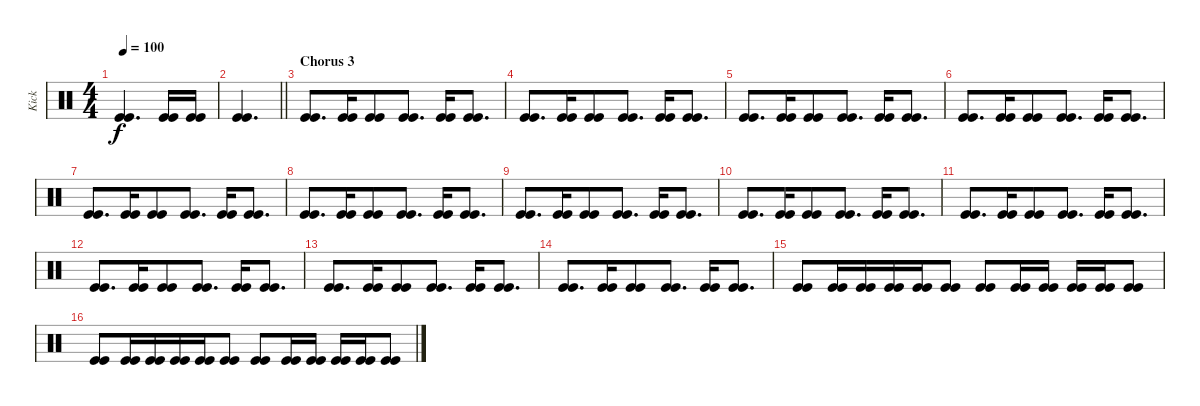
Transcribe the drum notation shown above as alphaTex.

\track ("Kick" "Kick") {instrument percussion}
\staff {score}
\articulation defaults
\ts (4 4)
\tempo 100
\clef neutral
\ks c
("Kick (hit)" "Kick (hit)").4{d dy f beam merge} ("Kick (hit)" "Kick (hit)").16 ("Kick (hit)" "Kick (hit)").16 |
\barLineRight lightlight
("Kick (hit)" "Kick (hit)").4{d} |
\section ("" "Chorus 3")
("Kick (hit)" "Kick (hit)").8{d} ("Kick (hit)" "Kick (hit)").16{beam merge} ("Kick (hit)" "Kick (hit)").8{beam merge} ("Kick (hit)" "Kick (hit)").8{d} ("Kick (hit)" "Kick (hit)").16{beam merge} ("Kick (hit)" "Kick (hit)").8{d} |
("Kick (hit)" "Kick (hit)").8{d} ("Kick (hit)" "Kick (hit)").16{beam merge} ("Kick (hit)" "Kick (hit)").8{beam merge} ("Kick (hit)" "Kick (hit)").8{d} ("Kick (hit)" "Kick (hit)").16{beam merge} ("Kick (hit)" "Kick (hit)").8{d} |
("Kick (hit)" "Kick (hit)").8{d} ("Kick (hit)" "Kick (hit)").16{beam merge} ("Kick (hit)" "Kick (hit)").8{beam merge} ("Kick (hit)" "Kick (hit)").8{d} ("Kick (hit)" "Kick (hit)").16{beam merge} ("Kick (hit)" "Kick (hit)").8{d} |
("Kick (hit)" "Kick (hit)").8{d} ("Kick (hit)" "Kick (hit)").16{beam merge} ("Kick (hit)" "Kick (hit)").8{beam merge} ("Kick (hit)" "Kick (hit)").8{d} ("Kick (hit)" "Kick (hit)").16{beam merge} ("Kick (hit)" "Kick (hit)").8{d} |
("Kick (hit)" "Kick (hit)").8{d} ("Kick (hit)" "Kick (hit)").16{beam merge} ("Kick (hit)" "Kick (hit)").8{beam merge} ("Kick (hit)" "Kick (hit)").8{d} ("Kick (hit)" "Kick (hit)").16{beam merge} ("Kick (hit)" "Kick (hit)").8{d} |
("Kick (hit)" "Kick (hit)").8{d} ("Kick (hit)" "Kick (hit)").16{beam merge} ("Kick (hit)" "Kick (hit)").8{beam merge} ("Kick (hit)" "Kick (hit)").8{d} ("Kick (hit)" "Kick (hit)").16{beam merge} ("Kick (hit)" "Kick (hit)").8{d} |
("Kick (hit)" "Kick (hit)").8{d} ("Kick (hit)" "Kick (hit)").16{beam merge} ("Kick (hit)" "Kick (hit)").8{beam merge} ("Kick (hit)" "Kick (hit)").8{d} ("Kick (hit)" "Kick (hit)").16{beam merge} ("Kick (hit)" "Kick (hit)").8{d} |
("Kick (hit)" "Kick (hit)").8{d} ("Kick (hit)" "Kick (hit)").16{beam merge} ("Kick (hit)" "Kick (hit)").8{beam merge} ("Kick (hit)" "Kick (hit)").8{d} ("Kick (hit)" "Kick (hit)").16{beam merge} ("Kick (hit)" "Kick (hit)").8{d} |
("Kick (hit)" "Kick (hit)").8{d} ("Kick (hit)" "Kick (hit)").16{beam merge} ("Kick (hit)" "Kick (hit)").8{beam merge} ("Kick (hit)" "Kick (hit)").8{d} ("Kick (hit)" "Kick (hit)").16{beam merge} ("Kick (hit)" "Kick (hit)").8{d} |
("Kick (hit)" "Kick (hit)").8{d} ("Kick (hit)" "Kick (hit)").16{beam merge} ("Kick (hit)" "Kick (hit)").8{beam merge} ("Kick (hit)" "Kick (hit)").8{d} ("Kick (hit)" "Kick (hit)").16{beam merge} ("Kick (hit)" "Kick (hit)").8{d} |
("Kick (hit)" "Kick (hit)").8{d} ("Kick (hit)" "Kick (hit)").16{beam merge} ("Kick (hit)" "Kick (hit)").8{beam merge} ("Kick (hit)" "Kick (hit)").8{d} ("Kick (hit)" "Kick (hit)").16{beam merge} ("Kick (hit)" "Kick (hit)").8{d} |
("Kick (hit)" "Kick (hit)").8{d} ("Kick (hit)" "Kick (hit)").16{beam merge} ("Kick (hit)" "Kick (hit)").8{beam merge} ("Kick (hit)" "Kick (hit)").8{d} ("Kick (hit)" "Kick (hit)").16{beam merge} ("Kick (hit)" "Kick (hit)").8{d} |
("Kick (hit)" "Kick (hit)").8 ("Kick (hit)" "Kick (hit)").16{beam merge} ("Kick (hit)" "Kick (hit)").16{beam merge} ("Kick (hit)" "Kick (hit)").16 ("Kick (hit)" "Kick (hit)").16{beam merge} ("Kick (hit)" "Kick (hit)").8 ("Kick (hit)" "Kick (hit)").8 ("Kick (hit)" "Kick (hit)").16 ("Kick (hit)" "Kick (hit)").16 ("Kick (hit)" "Kick (hit)").16 ("Kick (hit)" "Kick (hit)").16 ("Kick (hit)" "Kick (hit)").8 |
("Kick (hit)" "Kick (hit)").8 ("Kick (hit)" "Kick (hit)").16{beam merge} ("Kick (hit)" "Kick (hit)").16{beam merge} ("Kick (hit)" "Kick (hit)").16 ("Kick (hit)" "Kick (hit)").16{beam merge} ("Kick (hit)" "Kick (hit)").8 ("Kick (hit)" "Kick (hit)").8 ("Kick (hit)" "Kick (hit)").16 ("Kick (hit)" "Kick (hit)").16 ("Kick (hit)" "Kick (hit)").16 ("Kick (hit)" "Kick (hit)").16 ("Kick (hit)" "Kick (hit)").8
